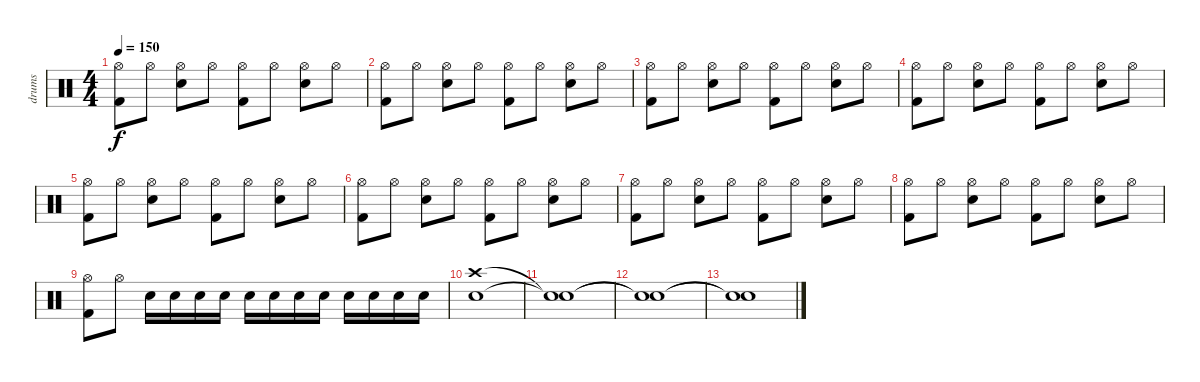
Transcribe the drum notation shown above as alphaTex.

\track ("drums" "drums") {instrument percussion}
\staff {score}
\articulation defaults
\ts (4 4)
\tempo 150
\clef neutral
\ks c
("Kick (hit) 2" "Hi-Hat (open)").8{dy f} "Hi-Hat (open)".8 ("Electric Snare (hit)" "Hi-Hat (open)").8 "Hi-Hat (open)".8 ("Kick (hit) 2" "Hi-Hat (open)").8 "Hi-Hat (open)".8 ("Electric Snare (hit)" "Hi-Hat (open)").8 "Hi-Hat (open)".8 |
("Kick (hit) 2" "Hi-Hat (open)").8 "Hi-Hat (open)".8 ("Electric Snare (hit)" "Hi-Hat (open)").8 "Hi-Hat (open)".8 ("Kick (hit) 2" "Hi-Hat (open)").8 "Hi-Hat (open)".8 ("Electric Snare (hit)" "Hi-Hat (open)").8 "Hi-Hat (open)".8 |
("Kick (hit) 2" "Hi-Hat (open)").8 "Hi-Hat (open)".8 ("Electric Snare (hit)" "Hi-Hat (open)").8 "Hi-Hat (open)".8 ("Kick (hit) 2" "Hi-Hat (open)").8 "Hi-Hat (open)".8 ("Electric Snare (hit)" "Hi-Hat (open)").8 "Hi-Hat (open)".8 |
("Kick (hit) 2" "Hi-Hat (open)").8 "Hi-Hat (open)".8 ("Electric Snare (hit)" "Hi-Hat (open)").8 "Hi-Hat (open)".8 ("Kick (hit) 2" "Hi-Hat (open)").8 "Hi-Hat (open)".8 ("Electric Snare (hit)" "Hi-Hat (open)").8 "Hi-Hat (open)".8 |
("Kick (hit) 2" "Hi-Hat (open)").8 "Hi-Hat (open)".8 ("Electric Snare (hit)" "Hi-Hat (open)").8 "Hi-Hat (open)".8 ("Kick (hit) 2" "Hi-Hat (open)").8 "Hi-Hat (open)".8 ("Electric Snare (hit)" "Hi-Hat (open)").8 "Hi-Hat (open)".8 |
("Kick (hit) 2" "Hi-Hat (open)").8 "Hi-Hat (open)".8 ("Electric Snare (hit)" "Hi-Hat (open)").8 "Hi-Hat (open)".8 ("Kick (hit) 2" "Hi-Hat (open)").8 "Hi-Hat (open)".8 ("Electric Snare (hit)" "Hi-Hat (open)").8 "Hi-Hat (open)".8 |
("Kick (hit) 2" "Hi-Hat (open)").8 "Hi-Hat (open)".8 ("Electric Snare (hit)" "Hi-Hat (open)").8 "Hi-Hat (open)".8 ("Kick (hit) 2" "Hi-Hat (open)").8 "Hi-Hat (open)".8 ("Electric Snare (hit)" "Hi-Hat (open)").8 "Hi-Hat (open)".8 |
("Kick (hit) 2" "Hi-Hat (open)").8 "Hi-Hat (open)".8 ("Electric Snare (hit)" "Hi-Hat (open)").8 "Hi-Hat (open)".8 ("Kick (hit) 2" "Hi-Hat (open)").8 "Hi-Hat (open)".8 ("Electric Snare (hit)" "Hi-Hat (open)").8 "Hi-Hat (open)".8 |
("Kick (hit) 2" "Hi-Hat (open)").8 "Hi-Hat (open)".8 "Electric Snare (hit)".16 "Electric Snare (hit)".16 "Electric Snare (hit)".16 "Electric Snare (hit)".16 "Electric Snare (hit)".16 "Electric Snare (hit)".16 "Electric Snare (hit)".16 "Electric Snare (hit)".16 "Electric Snare (hit)".16 "Electric Snare (hit)".16 "Electric Snare (hit)".16 "Electric Snare (hit)".16 |
("Electric Snare (hit)" "Crash high (hit)").1 |
("Snare (hit)"{t} "Snare (hit)"{t}).1 |
("Snare (hit)"{t} "Snare (hit)"{t}).1 |
("Snare (hit)"{t} "Snare (hit)"{t}).1
